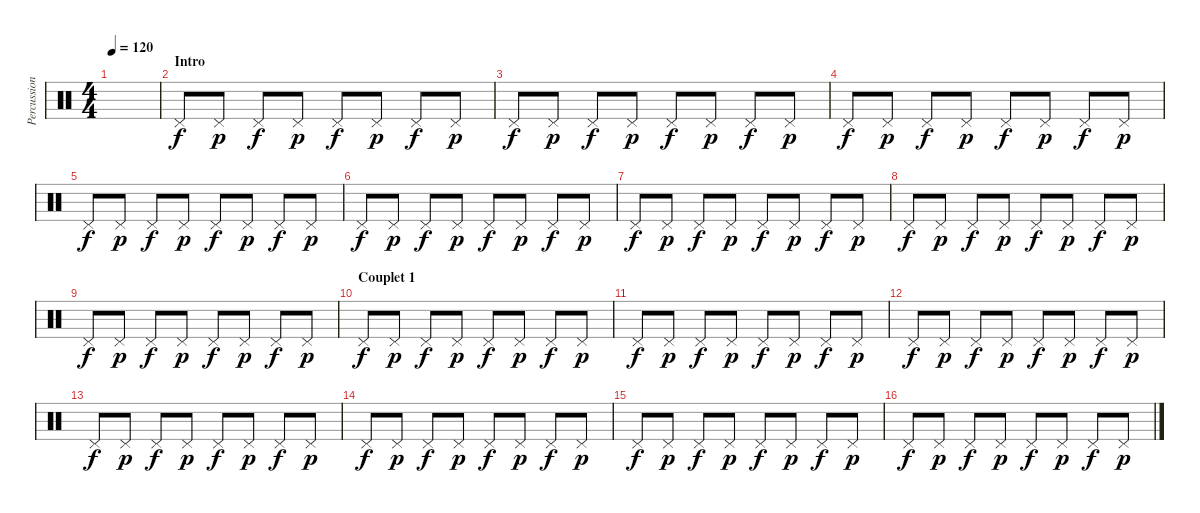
\track ("Percussions" "Percussion") {instrument percussion}
\staff {score}
\articulation defaults
\ts (4 4)
\tempo 120
\clef neutral
\ks c
|
\section ("" "Intro")
"Pedal Hi-Hat (hit)".8 "Pedal Hi-Hat (hit)".8{dy p} "Pedal Hi-Hat (hit)".8{dy f} "Pedal Hi-Hat (hit)".8{dy p} "Pedal Hi-Hat (hit)".8{dy f} "Pedal Hi-Hat (hit)".8{dy p} "Pedal Hi-Hat (hit)".8{dy f} "Pedal Hi-Hat (hit)".8{dy p} |
"Pedal Hi-Hat (hit)".8{dy f} "Pedal Hi-Hat (hit)".8{dy p} "Pedal Hi-Hat (hit)".8{dy f} "Pedal Hi-Hat (hit)".8{dy p} "Pedal Hi-Hat (hit)".8{dy f} "Pedal Hi-Hat (hit)".8{dy p} "Pedal Hi-Hat (hit)".8{dy f} "Pedal Hi-Hat (hit)".8{dy p} |
"Pedal Hi-Hat (hit)".8{dy f} "Pedal Hi-Hat (hit)".8{dy p} "Pedal Hi-Hat (hit)".8{dy f} "Pedal Hi-Hat (hit)".8{dy p} "Pedal Hi-Hat (hit)".8{dy f} "Pedal Hi-Hat (hit)".8{dy p} "Pedal Hi-Hat (hit)".8{dy f} "Pedal Hi-Hat (hit)".8{dy p} |
"Pedal Hi-Hat (hit)".8{dy f} "Pedal Hi-Hat (hit)".8{dy p} "Pedal Hi-Hat (hit)".8{dy f} "Pedal Hi-Hat (hit)".8{dy p} "Pedal Hi-Hat (hit)".8{dy f} "Pedal Hi-Hat (hit)".8{dy p} "Pedal Hi-Hat (hit)".8{dy f} "Pedal Hi-Hat (hit)".8{dy p} |
"Pedal Hi-Hat (hit)".8{dy f} "Pedal Hi-Hat (hit)".8{dy p} "Pedal Hi-Hat (hit)".8{dy f} "Pedal Hi-Hat (hit)".8{dy p} "Pedal Hi-Hat (hit)".8{dy f} "Pedal Hi-Hat (hit)".8{dy p} "Pedal Hi-Hat (hit)".8{dy f} "Pedal Hi-Hat (hit)".8{dy p} |
"Pedal Hi-Hat (hit)".8{dy f} "Pedal Hi-Hat (hit)".8{dy p} "Pedal Hi-Hat (hit)".8{dy f} "Pedal Hi-Hat (hit)".8{dy p} "Pedal Hi-Hat (hit)".8{dy f} "Pedal Hi-Hat (hit)".8{dy p} "Pedal Hi-Hat (hit)".8{dy f} "Pedal Hi-Hat (hit)".8{dy p} |
"Pedal Hi-Hat (hit)".8{dy f} "Pedal Hi-Hat (hit)".8{dy p} "Pedal Hi-Hat (hit)".8{dy f} "Pedal Hi-Hat (hit)".8{dy p} "Pedal Hi-Hat (hit)".8{dy f} "Pedal Hi-Hat (hit)".8{dy p} "Pedal Hi-Hat (hit)".8{dy f} "Pedal Hi-Hat (hit)".8{dy p} |
"Pedal Hi-Hat (hit)".8{dy f} "Pedal Hi-Hat (hit)".8{dy p} "Pedal Hi-Hat (hit)".8{dy f} "Pedal Hi-Hat (hit)".8{dy p} "Pedal Hi-Hat (hit)".8{dy f} "Pedal Hi-Hat (hit)".8{dy p} "Pedal Hi-Hat (hit)".8{dy f} "Pedal Hi-Hat (hit)".8{dy p} |
\section ("" "Couplet 1")
"Pedal Hi-Hat (hit)".8{dy f} "Pedal Hi-Hat (hit)".8{dy p} "Pedal Hi-Hat (hit)".8{dy f} "Pedal Hi-Hat (hit)".8{dy p} "Pedal Hi-Hat (hit)".8{dy f} "Pedal Hi-Hat (hit)".8{dy p} "Pedal Hi-Hat (hit)".8{dy f} "Pedal Hi-Hat (hit)".8{dy p} |
"Pedal Hi-Hat (hit)".8{dy f} "Pedal Hi-Hat (hit)".8{dy p} "Pedal Hi-Hat (hit)".8{dy f} "Pedal Hi-Hat (hit)".8{dy p} "Pedal Hi-Hat (hit)".8{dy f} "Pedal Hi-Hat (hit)".8{dy p} "Pedal Hi-Hat (hit)".8{dy f} "Pedal Hi-Hat (hit)".8{dy p} |
"Pedal Hi-Hat (hit)".8{dy f} "Pedal Hi-Hat (hit)".8{dy p} "Pedal Hi-Hat (hit)".8{dy f} "Pedal Hi-Hat (hit)".8{dy p} "Pedal Hi-Hat (hit)".8{dy f} "Pedal Hi-Hat (hit)".8{dy p} "Pedal Hi-Hat (hit)".8{dy f} "Pedal Hi-Hat (hit)".8{dy p} |
"Pedal Hi-Hat (hit)".8{dy f} "Pedal Hi-Hat (hit)".8{dy p} "Pedal Hi-Hat (hit)".8{dy f} "Pedal Hi-Hat (hit)".8{dy p} "Pedal Hi-Hat (hit)".8{dy f} "Pedal Hi-Hat (hit)".8{dy p} "Pedal Hi-Hat (hit)".8{dy f} "Pedal Hi-Hat (hit)".8{dy p} |
"Pedal Hi-Hat (hit)".8{dy f} "Pedal Hi-Hat (hit)".8{dy p} "Pedal Hi-Hat (hit)".8{dy f} "Pedal Hi-Hat (hit)".8{dy p} "Pedal Hi-Hat (hit)".8{dy f} "Pedal Hi-Hat (hit)".8{dy p} "Pedal Hi-Hat (hit)".8{dy f} "Pedal Hi-Hat (hit)".8{dy p} |
"Pedal Hi-Hat (hit)".8{dy f} "Pedal Hi-Hat (hit)".8{dy p} "Pedal Hi-Hat (hit)".8{dy f} "Pedal Hi-Hat (hit)".8{dy p} "Pedal Hi-Hat (hit)".8{dy f} "Pedal Hi-Hat (hit)".8{dy p} "Pedal Hi-Hat (hit)".8{dy f} "Pedal Hi-Hat (hit)".8{dy p} |
"Pedal Hi-Hat (hit)".8{dy f} "Pedal Hi-Hat (hit)".8{dy p} "Pedal Hi-Hat (hit)".8{dy f} "Pedal Hi-Hat (hit)".8{dy p} "Pedal Hi-Hat (hit)".8{dy f} "Pedal Hi-Hat (hit)".8{dy p} "Pedal Hi-Hat (hit)".8{dy f} "Pedal Hi-Hat (hit)".8{dy p}
